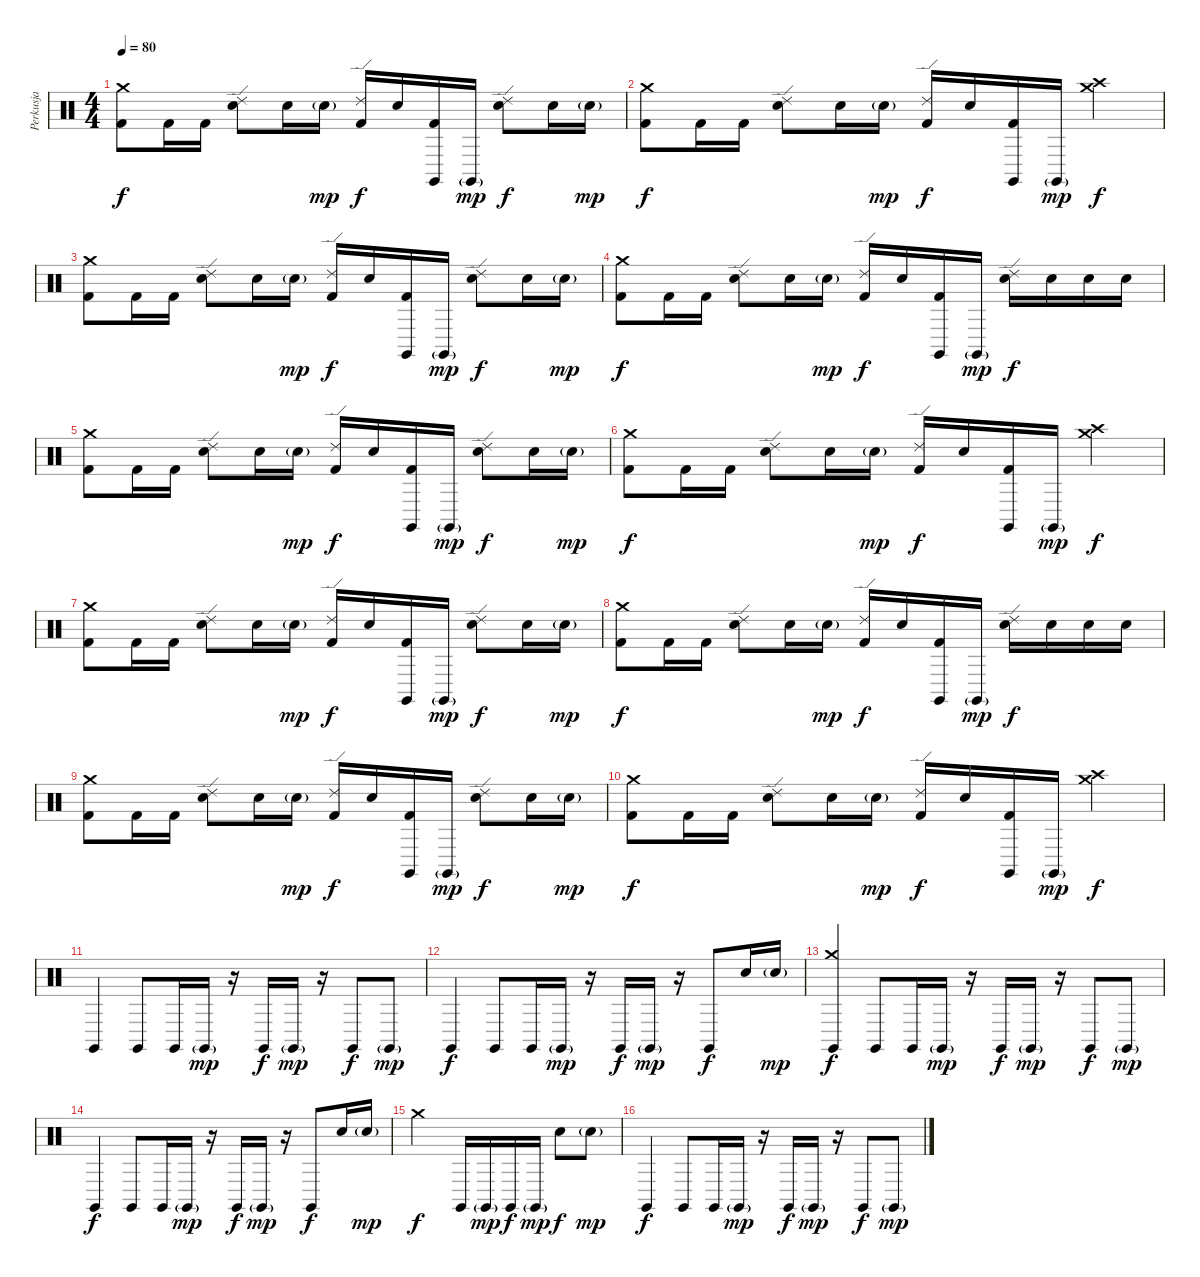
\track ("Perkusja" "Perkusja") {instrument percussion}
\staff {score}
\articulation defaults
\ts (4 4)
\tempo 80
\clef neutral
\ks c
("Crash medium (hit)" "Kick (hit) 2").8{dy f} "Kick (hit) 2".16 "Kick (hit) 2".16 ("Ride (edge) 2" "Snare (hit) 2").8 "Snare (hit) 2".16 "Snare (hit) 2"{g}.16{dy mp} ("Ride (edge) 2" "Kick (hit) 2").16{dy f} "Snare (hit) 2".16 ("Claves (hit)" "Kick (hit) 2").16 "Claves (hit)"{g}.16{dy mp} ("Ride (edge) 2" "Snare (hit) 2").8{dy f} "Snare (hit) 2".16 "Snare (hit) 2"{g}.16{dy mp} |
("Crash medium (hit)" "Kick (hit) 2").8{dy f} "Kick (hit) 2".16 "Kick (hit) 2".16 ("Ride (edge) 2" "Snare (hit) 2").8 "Snare (hit) 2".16 "Snare (hit) 2"{g}.16{dy mp} ("Ride (edge) 2" "Kick (hit) 2").16{dy f} "Snare (hit) 2".16 ("Claves (hit)" "Kick (hit) 2").16 "Claves (hit)"{g}.16{dy mp} ("Crash high (hit)" "Crash medium (hit)").4{dy f} |
("Crash medium (hit)" "Kick (hit) 2").8 "Kick (hit) 2".16 "Kick (hit) 2".16 ("Ride (edge) 2" "Snare (hit) 2").8 "Snare (hit) 2".16 "Snare (hit) 2"{g}.16{dy mp} ("Ride (edge) 2" "Kick (hit) 2").16{dy f} "Snare (hit) 2".16 ("Claves (hit)" "Kick (hit) 2").16 "Claves (hit)"{g}.16{dy mp} ("Ride (edge) 2" "Snare (hit) 2").8{dy f} "Snare (hit) 2".16 "Snare (hit) 2"{g}.16{dy mp} |
("Crash medium (hit)" "Kick (hit) 2").8{dy f} "Kick (hit) 2".16 "Kick (hit) 2".16 ("Ride (edge) 2" "Snare (hit) 2").8 "Snare (hit) 2".16 "Snare (hit) 2"{g}.16{dy mp} ("Ride (edge) 2" "Kick (hit) 2").16{dy f} "Snare (hit) 2".16 ("Claves (hit)" "Kick (hit) 2").16 "Claves (hit)"{g}.16{dy mp} ("Ride (edge) 2" "Snare (hit) 2").16{dy f} "Electric Snare (hit)".16 "Electric Snare (hit)".16 "Electric Snare (hit)".16 |
("Crash medium (hit)" "Kick (hit) 2").8 "Kick (hit) 2".16 "Kick (hit) 2".16 ("Ride (edge) 2" "Snare (hit) 2").8 "Snare (hit) 2".16 "Snare (hit) 2"{g}.16{dy mp} ("Ride (edge) 2" "Kick (hit) 2").16{dy f} "Snare (hit) 2".16 ("Claves (hit)" "Kick (hit) 2").16 "Claves (hit)"{g}.16{dy mp} ("Ride (edge) 2" "Snare (hit) 2").8{dy f} "Snare (hit) 2".16 "Snare (hit) 2"{g}.16{dy mp} |
("Crash medium (hit)" "Kick (hit) 2").8{dy f} "Kick (hit) 2".16 "Kick (hit) 2".16 ("Ride (edge) 2" "Snare (hit) 2").8 "Snare (hit) 2".16 "Snare (hit) 2"{g}.16{dy mp} ("Ride (edge) 2" "Kick (hit) 2").16{dy f} "Snare (hit) 2".16 ("Claves (hit)" "Kick (hit) 2").16 "Claves (hit)"{g}.16{dy mp} ("Crash high (hit)" "Crash medium (hit)").4{dy f} |
("Crash medium (hit)" "Kick (hit) 2").8 "Kick (hit) 2".16 "Kick (hit) 2".16 ("Ride (edge) 2" "Snare (hit) 2").8 "Snare (hit) 2".16 "Snare (hit) 2"{g}.16{dy mp} ("Ride (edge) 2" "Kick (hit) 2").16{dy f} "Snare (hit) 2".16 ("Claves (hit)" "Kick (hit) 2").16 "Claves (hit)"{g}.16{dy mp} ("Ride (edge) 2" "Snare (hit) 2").8{dy f} "Snare (hit) 2".16 "Snare (hit) 2"{g}.16{dy mp} |
("Crash medium (hit)" "Kick (hit) 2").8{dy f} "Kick (hit) 2".16 "Kick (hit) 2".16 ("Ride (edge) 2" "Snare (hit) 2").8 "Snare (hit) 2".16 "Snare (hit) 2"{g}.16{dy mp} ("Ride (edge) 2" "Kick (hit) 2").16{dy f} "Snare (hit) 2".16 ("Claves (hit)" "Kick (hit) 2").16 "Claves (hit)"{g}.16{dy mp} ("Ride (edge) 2" "Snare (hit) 2").16{dy f} "Electric Snare (hit)".16 "Electric Snare (hit)".16 "Electric Snare (hit)".16 |
("Crash medium (hit)" "Kick (hit) 2").8 "Kick (hit) 2".16 "Kick (hit) 2".16 ("Ride (edge) 2" "Snare (hit) 2").8 "Snare (hit) 2".16 "Snare (hit) 2"{g}.16{dy mp} ("Ride (edge) 2" "Kick (hit) 2").16{dy f} "Snare (hit) 2".16 ("Claves (hit)" "Kick (hit) 2").16 "Claves (hit)"{g}.16{dy mp} ("Ride (edge) 2" "Snare (hit) 2").8{dy f} "Snare (hit) 2".16 "Snare (hit) 2"{g}.16{dy mp} |
("Crash medium (hit)" "Kick (hit) 2").8{dy f} "Kick (hit) 2".16 "Kick (hit) 2".16 ("Ride (edge) 2" "Snare (hit) 2").8 "Snare (hit) 2".16 "Snare (hit) 2"{g}.16{dy mp} ("Ride (edge) 2" "Kick (hit) 2").16{dy f} "Snare (hit) 2".16 ("Claves (hit)" "Kick (hit) 2").16 "Claves (hit)"{g}.16{dy mp} ("Crash high (hit)" "Crash medium (hit)").4{dy f} |
"Claves (hit)".4 "Claves (hit)".8 "Claves (hit)".16 "Claves (hit)"{g}.16{dy mp} r.16 "Claves (hit)".16{dy f} "Claves (hit)"{g}.16{dy mp} r.16 "Claves (hit)".8{dy f} "Claves (hit)"{g}.8{dy mp} |
"Claves (hit)".4{dy f} "Claves (hit)".8 "Claves (hit)".16 "Claves (hit)"{g}.16{dy mp} r.16 "Claves (hit)".16{dy f} "Claves (hit)"{g}.16{dy mp} r.16 "Claves (hit)".8{dy f} "Snare (hit) 2".16 "Snare (hit) 2"{g}.16{dy mp} |
("Crash medium (hit)" "Claves (hit)").4{dy f} "Claves (hit)".8 "Claves (hit)".16 "Claves (hit)"{g}.16{dy mp} r.16 "Claves (hit)".16{dy f} "Claves (hit)"{g}.16{dy mp} r.16 "Claves (hit)".8{dy f} "Claves (hit)"{g}.8{dy mp} |
"Claves (hit)".4{dy f} "Claves (hit)".8 "Claves (hit)".16 "Claves (hit)"{g}.16{dy mp} r.16 "Claves (hit)".16{dy f} "Claves (hit)"{g}.16{dy mp} r.16 "Claves (hit)".8{dy f} "Snare (hit) 2".16 "Snare (hit) 2"{g}.16{dy mp} |
"Crash medium (hit)".2{dy f} "Claves (hit)".16 "Claves (hit)"{g}.16{dy mp} "Claves (hit)".16{dy f} "Claves (hit)"{g}.16{dy mp} "Snare (hit) 2".8{dy f} "Snare (hit) 2"{g}.8{dy mp} |
"Claves (hit)".4{dy f} "Claves (hit)".8 "Claves (hit)".16 "Claves (hit)"{g}.16{dy mp} r.16 "Claves (hit)".16{dy f} "Claves (hit)"{g}.16{dy mp} r.16 "Claves (hit)".8{dy f} "Claves (hit)"{g}.8{dy mp}
